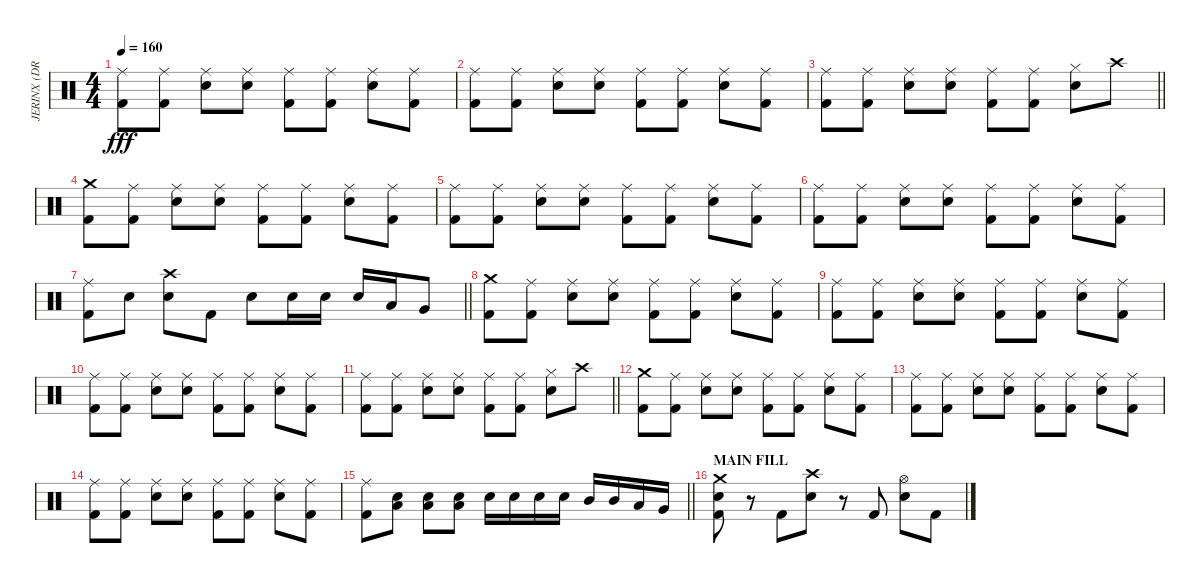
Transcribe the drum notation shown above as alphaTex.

\track ("JERINX (DRUM)" "JERINX (DR") {instrument percussion}
\staff {score}
\articulation defaults
\ts (4 4)
\tempo 160
\clef neutral
\ks c
("Kick (hit) 2" "Ride (middle)").8{dy fff} ("Kick (hit) 2" "Ride (middle)").8 ("Snare (hit) 2" "Ride (middle)").8 ("Snare (hit) 2" "Ride (middle)").8 ("Kick (hit) 2" "Ride (middle)").8 ("Kick (hit) 2" "Ride (middle)").8 ("Snare (hit) 2" "Ride (middle)").8 ("Kick (hit) 2" "Ride (middle)").8 |
("Kick (hit) 2" "Ride (middle)").8 ("Kick (hit) 2" "Ride (middle)").8 ("Snare (hit) 2" "Ride (middle)").8 ("Snare (hit) 2" "Ride (middle)").8 ("Kick (hit) 2" "Ride (middle)").8 ("Kick (hit) 2" "Ride (middle)").8 ("Snare (hit) 2" "Ride (middle)").8 ("Kick (hit) 2" "Ride (middle)").8 |
\barLineRight lightlight
("Kick (hit) 2" "Ride (middle)").8 ("Kick (hit) 2" "Ride (middle)").8 ("Snare (hit) 2" "Ride (middle)").8 ("Snare (hit) 2" "Ride (middle)").8 ("Kick (hit) 2" "Ride (middle)").8 ("Kick (hit) 2" "Ride (middle)").8 ("Hi-Hat (closed)" "Snare (hit) 2").8 "Crash high (hit)".8 |
("Kick (hit) 2" "Crash medium (hit)").8 ("Kick (hit) 2" "Ride (middle)").8 ("Snare (hit) 2" "Ride (middle)").8 ("Snare (hit) 2" "Ride (middle)").8 ("Kick (hit) 2" "Ride (middle)").8 ("Kick (hit) 2" "Ride (middle)").8 ("Snare (hit) 2" "Ride (middle)").8 ("Kick (hit) 2" "Ride (middle)").8 |
("Kick (hit) 2" "Ride (middle)").8 ("Kick (hit) 2" "Ride (middle)").8 ("Snare (hit) 2" "Ride (middle)").8 ("Snare (hit) 2" "Ride (middle)").8 ("Kick (hit) 2" "Ride (middle)").8 ("Kick (hit) 2" "Ride (middle)").8 ("Snare (hit) 2" "Ride (middle)").8 ("Kick (hit) 2" "Ride (middle)").8 |
("Kick (hit) 2" "Ride (middle)").8 ("Kick (hit) 2" "Ride (middle)").8 ("Snare (hit) 2" "Ride (middle)").8 ("Snare (hit) 2" "Ride (middle)").8 ("Kick (hit) 2" "Ride (middle)").8 ("Kick (hit) 2" "Ride (middle)").8 ("Snare (hit) 2" "Ride (middle)").8 ("Kick (hit) 2" "Ride (middle)").8 |
\barLineRight lightlight
("Kick (hit) 2" "Ride (middle)").8 "Snare (hit) 2".8 ("Snare (hit) 2" "Crash high (hit)").8 "Kick (hit) 2".8 "Snare (hit) 2".8 "Snare (hit) 2".16 "Snare (hit) 2".16 "Snare (hit) 2".16 "Low Tom (hit)".16 "Very Low Tom (hit)".8 |
("Kick (hit) 2" "Crash medium (hit)").8 ("Kick (hit) 2" "Ride (middle)").8 ("Snare (hit) 2" "Ride (middle)").8 ("Snare (hit) 2" "Ride (middle)").8 ("Kick (hit) 2" "Ride (middle)").8 ("Kick (hit) 2" "Ride (middle)").8 ("Snare (hit) 2" "Ride (middle)").8 ("Kick (hit) 2" "Ride (middle)").8 |
("Kick (hit) 2" "Ride (middle)").8 ("Kick (hit) 2" "Ride (middle)").8 ("Snare (hit) 2" "Ride (middle)").8 ("Snare (hit) 2" "Ride (middle)").8 ("Kick (hit) 2" "Ride (middle)").8 ("Kick (hit) 2" "Ride (middle)").8 ("Snare (hit) 2" "Ride (middle)").8 ("Kick (hit) 2" "Ride (middle)").8 |
("Kick (hit) 2" "Ride (middle)").8 ("Kick (hit) 2" "Ride (middle)").8 ("Snare (hit) 2" "Ride (middle)").8 ("Snare (hit) 2" "Ride (middle)").8 ("Kick (hit) 2" "Ride (middle)").8 ("Kick (hit) 2" "Ride (middle)").8 ("Snare (hit) 2" "Ride (middle)").8 ("Kick (hit) 2" "Ride (middle)").8 |
\barLineRight lightlight
("Kick (hit) 2" "Ride (middle)").8 ("Kick (hit) 2" "Ride (middle)").8 ("Snare (hit) 2" "Ride (middle)").8 ("Snare (hit) 2" "Ride (middle)").8 ("Kick (hit) 2" "Ride (middle)").8 ("Kick (hit) 2" "Ride (middle)").8 ("Hi-Hat (closed)" "Snare (hit) 2").8 "Crash high (hit)".8 |
("Kick (hit) 2" "Crash medium (hit)").8 ("Kick (hit) 2" "Ride (middle)").8 ("Snare (hit) 2" "Ride (middle)").8 ("Snare (hit) 2" "Ride (middle)").8 ("Kick (hit) 2" "Ride (middle)").8 ("Kick (hit) 2" "Ride (middle)").8 ("Snare (hit) 2" "Ride (middle)").8 ("Kick (hit) 2" "Ride (middle)").8 |
("Kick (hit) 2" "Ride (middle)").8 ("Kick (hit) 2" "Ride (middle)").8 ("Snare (hit) 2" "Ride (middle)").8 ("Snare (hit) 2" "Ride (middle)").8 ("Kick (hit) 2" "Ride (middle)").8 ("Kick (hit) 2" "Ride (middle)").8 ("Snare (hit) 2" "Ride (middle)").8 ("Kick (hit) 2" "Ride (middle)").8 |
("Kick (hit) 2" "Ride (middle)").8 ("Kick (hit) 2" "Ride (middle)").8 ("Snare (hit) 2" "Ride (middle)").8 ("Snare (hit) 2" "Ride (middle)").8 ("Kick (hit) 2" "Ride (middle)").8 ("Kick (hit) 2" "Ride (middle)").8 ("Snare (hit) 2" "Ride (middle)").8 ("Kick (hit) 2" "Ride (middle)").8 |
\barLineRight lightlight
("Kick (hit) 2" "Ride (middle)").8 ("Snare (hit) 2" "Low Floor Tom (hit)").8 ("Snare (hit) 2" "Low Floor Tom (hit)").8 ("Snare (hit) 2" "Low Floor Tom (hit)").8 "Snare (hit) 2".16 "Snare (hit) 2".16 "Snare (hit) 2".16 "Snare (hit) 2".16 "Mid Tom (hit)".16 "Mid Tom (hit)".16 "Low Tom (hit)".16 "Very Low Tom (hit)".16 |
\section ("" "MAIN FILL")
("Snare (hit) 2" "Kick (hit) 2" "Crash medium (hit)").8 r.8 "Kick (hit) 2".8 ("Snare (hit) 2" "Crash high (hit)").8 r.8 "Kick (hit) 2".8 ("Hi-Hat (open)" "Snare (hit) 2").8 "Kick (hit) 2".8
